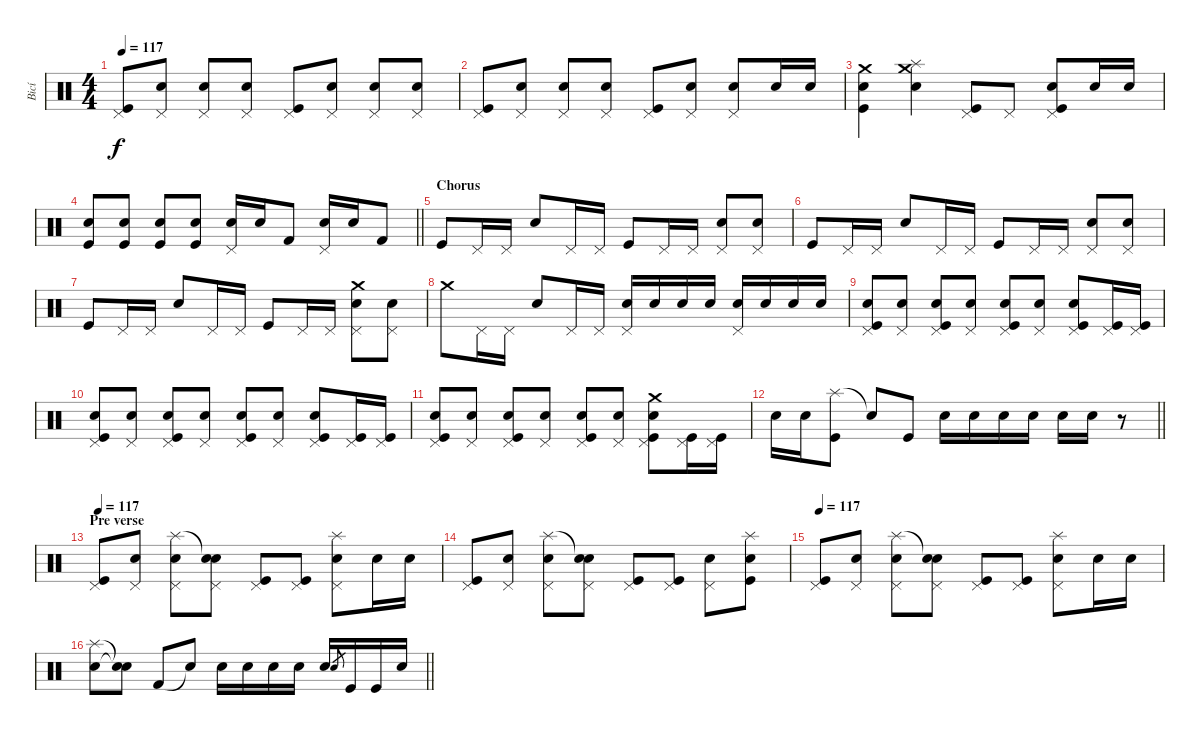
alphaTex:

\track ("Bicí" "Bicí") {instrument percussion}
\staff {score}
\articulation defaults
\ts (4 4)
\tempo 117
\clef neutral
\ks c
("Pedal Hi-Hat (hit)" "Kick (hit)").8{dy f} ("Pedal Hi-Hat (hit)" "Snare (hit)").8 ("Pedal Hi-Hat (hit)" "Electric Snare (hit)").8 ("Pedal Hi-Hat (hit)" "Snare (hit)").8 ("Pedal Hi-Hat (hit)" "Kick (hit)").8 ("Pedal Hi-Hat (hit)" "Snare (hit)").8 ("Pedal Hi-Hat (hit)" "Electric Snare (hit)").8 ("Pedal Hi-Hat (hit)" "Snare (hit)").8 |
("Pedal Hi-Hat (hit)" "Kick (hit)").8 ("Pedal Hi-Hat (hit)" "Snare (hit)").8 ("Pedal Hi-Hat (hit)" "Electric Snare (hit)").8 ("Pedal Hi-Hat (hit)" "Snare (hit)").8 ("Pedal Hi-Hat (hit)" "Kick (hit)").8 ("Pedal Hi-Hat (hit)" "Snare (hit)").8 ("Pedal Hi-Hat (hit)" "Electric Snare (hit)").8 "Electric Snare (hit)".16 "Electric Snare (hit)".16 |
("Electric Snare (hit)" "Crash medium (hit)" "Kick (hit)").4 ("Electric Snare (hit)" "Crash medium (hit)" "Splash (hit)").4 ("Pedal Hi-Hat (hit)" "Kick (hit)").8 "Pedal Hi-Hat (hit)".8 ("Electric Snare (hit)" "Pedal Hi-Hat (hit)" "Kick (hit)").8 "Electric Snare (hit)".16 "Electric Snare (hit)".16 |
\barLineRight lightlight
("Electric Snare (hit)" "Kick (hit)").8 ("Electric Snare (hit)" "Kick (hit)").8 ("Electric Snare (hit)" "Kick (hit)").8 ("Electric Snare (hit)" "Kick (hit)").8 ("Pedal Hi-Hat (hit)" "Electric Snare (hit)").16 "Electric Snare (hit)".16 "Kick (hit) 2".8 ("Pedal Hi-Hat (hit)" "Electric Snare (hit)").16 "Electric Snare (hit)".16 "Kick (hit) 2".8 |
\section ("" "Chorus")
"Kick (hit)".8 "Pedal Hi-Hat (hit)".16 "Pedal Hi-Hat (hit)".16 "Electric Snare (hit)".8 "Pedal Hi-Hat (hit)".16 "Pedal Hi-Hat (hit)".16 "Kick (hit)".8 "Pedal Hi-Hat (hit)".16 "Pedal Hi-Hat (hit)".16 ("Pedal Hi-Hat (hit)" "Electric Snare (hit)").8 ("Pedal Hi-Hat (hit)" "Electric Snare (hit)").8 |
"Kick (hit)".8 "Pedal Hi-Hat (hit)".16 "Pedal Hi-Hat (hit)".16 "Electric Snare (hit)".8 "Pedal Hi-Hat (hit)".16 "Pedal Hi-Hat (hit)".16 "Kick (hit)".8 "Pedal Hi-Hat (hit)".16 "Pedal Hi-Hat (hit)".16 ("Pedal Hi-Hat (hit)" "Electric Snare (hit)").8 ("Pedal Hi-Hat (hit)" "Electric Snare (hit)").8 |
"Kick (hit)".8 "Pedal Hi-Hat (hit)".16 "Pedal Hi-Hat (hit)".16 "Electric Snare (hit)".8 "Pedal Hi-Hat (hit)".16 "Pedal Hi-Hat (hit)".16 "Kick (hit)".8 "Pedal Hi-Hat (hit)".16 "Pedal Hi-Hat (hit)".16 ("Crash medium (hit)" "Pedal Hi-Hat (hit)" "Electric Snare (hit)").8 ("Pedal Hi-Hat (hit)" "Electric Snare (hit)").8 |
"Crash medium (hit)".8 "Pedal Hi-Hat (hit)".16 "Pedal Hi-Hat (hit)".16 "Electric Snare (hit)".8 "Pedal Hi-Hat (hit)".16 "Pedal Hi-Hat (hit)".16 ("Electric Snare (hit)" "Pedal Hi-Hat (hit)").16 "Electric Snare (hit)".16 "Electric Snare (hit)".16 "Electric Snare (hit)".16 ("Electric Snare (hit)" "Pedal Hi-Hat (hit)").16 "Electric Snare (hit)".16 "Electric Snare (hit)".16 "Electric Snare (hit)".16 |
("Pedal Hi-Hat (hit)" "Electric Snare (hit)" "Kick (hit)").8 ("Pedal Hi-Hat (hit)" "Snare (hit)").8 ("Pedal Hi-Hat (hit)" "Electric Snare (hit)" "Kick (hit)").8 ("Pedal Hi-Hat (hit)" "Snare (hit)").8 ("Pedal Hi-Hat (hit)" "Electric Snare (hit)" "Kick (hit)").8 ("Pedal Hi-Hat (hit)" "Snare (hit)").8 ("Pedal Hi-Hat (hit)" "Electric Snare (hit)" "Kick (hit)").8 ("Pedal Hi-Hat (hit)" "Kick (hit)").16 ("Pedal Hi-Hat (hit)" "Kick (hit)").16 |
("Pedal Hi-Hat (hit)" "Electric Snare (hit)" "Kick (hit)").8 ("Pedal Hi-Hat (hit)" "Snare (hit)").8 ("Pedal Hi-Hat (hit)" "Electric Snare (hit)" "Kick (hit)").8 ("Pedal Hi-Hat (hit)" "Snare (hit)").8 ("Pedal Hi-Hat (hit)" "Electric Snare (hit)" "Kick (hit)").8 ("Pedal Hi-Hat (hit)" "Snare (hit)").8 ("Pedal Hi-Hat (hit)" "Electric Snare (hit)" "Kick (hit)").8 ("Pedal Hi-Hat (hit)" "Kick (hit)").16 ("Pedal Hi-Hat (hit)" "Kick (hit)").16 |
("Pedal Hi-Hat (hit)" "Electric Snare (hit)" "Kick (hit)").8 ("Pedal Hi-Hat (hit)" "Snare (hit)").8 ("Pedal Hi-Hat (hit)" "Electric Snare (hit)" "Kick (hit)").8 ("Pedal Hi-Hat (hit)" "Snare (hit)").8 ("Pedal Hi-Hat (hit)" "Electric Snare (hit)" "Kick (hit)").8 ("Pedal Hi-Hat (hit)" "Snare (hit)").8 ("Crash medium (hit)" "Pedal Hi-Hat (hit)" "Electric Snare (hit)" "Kick (hit)").8 ("Pedal Hi-Hat (hit)" "Kick (hit)").16 ("Pedal Hi-Hat (hit)" "Kick (hit)").16 |
\barLineRight lightlight "Electric Snare (hit)".16 "Electric Snare (hit)".16
("Splash (hit)" "Kick (hit)").8 "Snare (hit)"{t}.8 "Kick (hit)".8 "Electric Snare (hit)".16 "Electric Snare (hit)".16 "Electric Snare (hit)".16 "Electric Snare (hit)".16 "Electric Snare (hit)".16 "Electric Snare (hit)".16 r.8 |
\section ("" "Pre verse")
\tempo 117
("Pedal Hi-Hat (hit)" "Kick (hit)").8 ("Pedal Hi-Hat (hit)" "Snare (hit)").8 ("Pedal Hi-Hat (hit)" "Splash (hit)" "Electric Snare (hit)").8 ("Pedal Hi-Hat (hit)" "Snare (hit)"{t} "Snare (hit)").8 ("Pedal Hi-Hat (hit)" "Kick (hit)").8 ("Pedal Hi-Hat (hit)" "Kick (hit)").8 ("Pedal Hi-Hat (hit)" "Splash (hit)" "Electric Snare (hit)").8 "Electric Snare (hit)".16 "Electric Snare (hit)".16 |
("Pedal Hi-Hat (hit)" "Kick (hit)").8 ("Pedal Hi-Hat (hit)" "Snare (hit)").8 ("Pedal Hi-Hat (hit)" "Splash (hit)" "Electric Snare (hit)").8 ("Pedal Hi-Hat (hit)" "Snare (hit)"{t} "Snare (hit)").8 ("Pedal Hi-Hat (hit)" "Kick (hit)").8 ("Pedal Hi-Hat (hit)" "Kick (hit)").8 ("Pedal Hi-Hat (hit)" "Snare (hit)").8 ("Electric Snare (hit)" "Splash (hit)" "Kick (hit)").8 |
\tempo 117
("Pedal Hi-Hat (hit)" "Kick (hit)").8 ("Pedal Hi-Hat (hit)" "Snare (hit)").8 ("Pedal Hi-Hat (hit)" "Splash (hit)" "Electric Snare (hit)").8 ("Pedal Hi-Hat (hit)" "Snare (hit)"{t} "Snare (hit)").8 ("Pedal Hi-Hat (hit)" "Kick (hit)").8 ("Pedal Hi-Hat (hit)" "Kick (hit)").8 ("Pedal Hi-Hat (hit)" "Splash (hit)" "Electric Snare (hit)").8 "Electric Snare (hit)".16 "Electric Snare (hit)".16 |
\barLineRight lightlight
("Splash (hit)" "Electric Snare (hit)").8 ("Snare (hit)"{t} "Snare (hit)"{t}).8 "Kick (hit) 2".8 "Snare (hit)"{t}.8 "Electric Snare (hit)".16 "Electric Snare (hit)".16 "Electric Snare (hit)".16 "Electric Snare (hit)".16 "Electric Snare (hit)".16 "Electric Snare (hit)".8{gr} "Kick (hit)".16 "Kick (hit)".16 "Electric Snare (hit)".16
